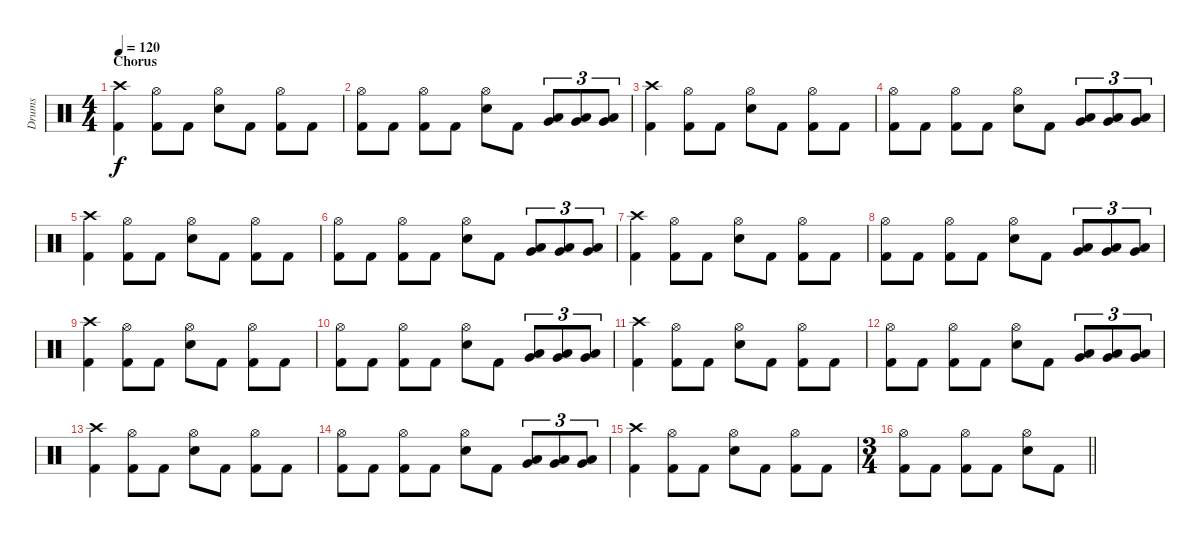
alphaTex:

\track ("Drums" "Drums") {instrument percussion}
\staff {score}
\articulation defaults
\ts (4 4)
\section ("" "Chorus")
\tempo 120
\clef neutral
\ks c
("Crash high (hit)" "Kick (hit) 2").4{dy f} ("Hi-Hat (open)" "Kick (hit) 2").8 "Kick (hit) 2".8 ("Hi-Hat (open)" "Electric Snare (hit)").8 "Kick (hit) 2".8 ("Hi-Hat (open)" "Kick (hit) 2").8 "Kick (hit) 2".8 |
("Hi-Hat (open)" "Kick (hit) 2").8 "Kick (hit) 2".8 ("Hi-Hat (open)" "Kick (hit) 2").8 "Kick (hit) 2".8 ("Hi-Hat (open)" "Electric Snare (hit)").8 "Kick (hit) 2".8 ("Low Tom (hit)" "Very Low Tom (hit)").8{tu (3 2)} ("Low Tom (hit)" "Very Low Tom (hit)").8{tu (3 2)} ("Low Tom (hit)" "Very Low Tom (hit)").8{tu (3 2)} |
("Crash high (hit)" "Kick (hit) 2").4 ("Hi-Hat (open)" "Kick (hit) 2").8 "Kick (hit) 2".8 ("Hi-Hat (open)" "Electric Snare (hit)").8 "Kick (hit) 2".8 ("Hi-Hat (open)" "Kick (hit) 2").8 "Kick (hit) 2".8 |
("Hi-Hat (open)" "Kick (hit) 2").8 "Kick (hit) 2".8 ("Hi-Hat (open)" "Kick (hit) 2").8 "Kick (hit) 2".8 ("Hi-Hat (open)" "Electric Snare (hit)").8 "Kick (hit) 2".8 ("Low Tom (hit)" "Very Low Tom (hit)").8{tu (3 2)} ("Low Tom (hit)" "Very Low Tom (hit)").8{tu (3 2)} ("Low Tom (hit)" "Very Low Tom (hit)").8{tu (3 2)} |
("Crash high (hit)" "Kick (hit) 2").4 ("Hi-Hat (open)" "Kick (hit) 2").8 "Kick (hit) 2".8 ("Hi-Hat (open)" "Electric Snare (hit)").8 "Kick (hit) 2".8 ("Hi-Hat (open)" "Kick (hit) 2").8 "Kick (hit) 2".8 |
("Hi-Hat (open)" "Kick (hit) 2").8 "Kick (hit) 2".8 ("Hi-Hat (open)" "Kick (hit) 2").8 "Kick (hit) 2".8 ("Hi-Hat (open)" "Electric Snare (hit)").8 "Kick (hit) 2".8 ("Low Tom (hit)" "Very Low Tom (hit)").8{tu (3 2)} ("Low Tom (hit)" "Very Low Tom (hit)").8{tu (3 2)} ("Low Tom (hit)" "Very Low Tom (hit)").8{tu (3 2)} |
("Crash high (hit)" "Kick (hit) 2").4 ("Hi-Hat (open)" "Kick (hit) 2").8 "Kick (hit) 2".8 ("Hi-Hat (open)" "Electric Snare (hit)").8 "Kick (hit) 2".8 ("Hi-Hat (open)" "Kick (hit) 2").8 "Kick (hit) 2".8 |
("Hi-Hat (open)" "Kick (hit) 2").8 "Kick (hit) 2".8 ("Hi-Hat (open)" "Kick (hit) 2").8 "Kick (hit) 2".8 ("Hi-Hat (open)" "Electric Snare (hit)").8 "Kick (hit) 2".8 ("Low Tom (hit)" "Very Low Tom (hit)").8{tu (3 2)} ("Low Tom (hit)" "Very Low Tom (hit)").8{tu (3 2)} ("Low Tom (hit)" "Very Low Tom (hit)").8{tu (3 2)} |
("Crash high (hit)" "Kick (hit) 2").4 ("Hi-Hat (open)" "Kick (hit) 2").8 "Kick (hit) 2".8 ("Hi-Hat (open)" "Electric Snare (hit)").8 "Kick (hit) 2".8 ("Hi-Hat (open)" "Kick (hit) 2").8 "Kick (hit) 2".8 |
("Hi-Hat (open)" "Kick (hit) 2").8 "Kick (hit) 2".8 ("Hi-Hat (open)" "Kick (hit) 2").8 "Kick (hit) 2".8 ("Hi-Hat (open)" "Electric Snare (hit)").8 "Kick (hit) 2".8 ("Low Tom (hit)" "Very Low Tom (hit)").8{tu (3 2)} ("Low Tom (hit)" "Very Low Tom (hit)").8{tu (3 2)} ("Low Tom (hit)" "Very Low Tom (hit)").8{tu (3 2)} |
("Crash high (hit)" "Kick (hit) 2").4 ("Hi-Hat (open)" "Kick (hit) 2").8 "Kick (hit) 2".8 ("Hi-Hat (open)" "Electric Snare (hit)").8 "Kick (hit) 2".8 ("Hi-Hat (open)" "Kick (hit) 2").8 "Kick (hit) 2".8 |
("Hi-Hat (open)" "Kick (hit) 2").8 "Kick (hit) 2".8 ("Hi-Hat (open)" "Kick (hit) 2").8 "Kick (hit) 2".8 ("Hi-Hat (open)" "Electric Snare (hit)").8 "Kick (hit) 2".8 ("Low Tom (hit)" "Very Low Tom (hit)").8{tu (3 2)} ("Low Tom (hit)" "Very Low Tom (hit)").8{tu (3 2)} ("Low Tom (hit)" "Very Low Tom (hit)").8{tu (3 2)} |
("Crash high (hit)" "Kick (hit) 2").4 ("Hi-Hat (open)" "Kick (hit) 2").8 "Kick (hit) 2".8 ("Hi-Hat (open)" "Electric Snare (hit)").8 "Kick (hit) 2".8 ("Hi-Hat (open)" "Kick (hit) 2").8 "Kick (hit) 2".8 |
("Hi-Hat (open)" "Kick (hit) 2").8 "Kick (hit) 2".8 ("Hi-Hat (open)" "Kick (hit) 2").8 "Kick (hit) 2".8 ("Hi-Hat (open)" "Electric Snare (hit)").8 "Kick (hit) 2".8 ("Low Tom (hit)" "Very Low Tom (hit)").8{tu (3 2)} ("Low Tom (hit)" "Very Low Tom (hit)").8{tu (3 2)} ("Low Tom (hit)" "Very Low Tom (hit)").8{tu (3 2)} |
("Crash high (hit)" "Kick (hit) 2").4 ("Hi-Hat (open)" "Kick (hit) 2").8 "Kick (hit) 2".8 ("Hi-Hat (open)" "Electric Snare (hit)").8 "Kick (hit) 2".8 ("Hi-Hat (open)" "Kick (hit) 2").8 "Kick (hit) 2".8 |
\ts (3 4)
\barLineRight lightlight
("Hi-Hat (open)" "Kick (hit) 2").8 "Kick (hit) 2".8 ("Hi-Hat (open)" "Kick (hit) 2").8 "Kick (hit) 2".8 ("Hi-Hat (open)" "Electric Snare (hit)").8 "Kick (hit) 2".8
